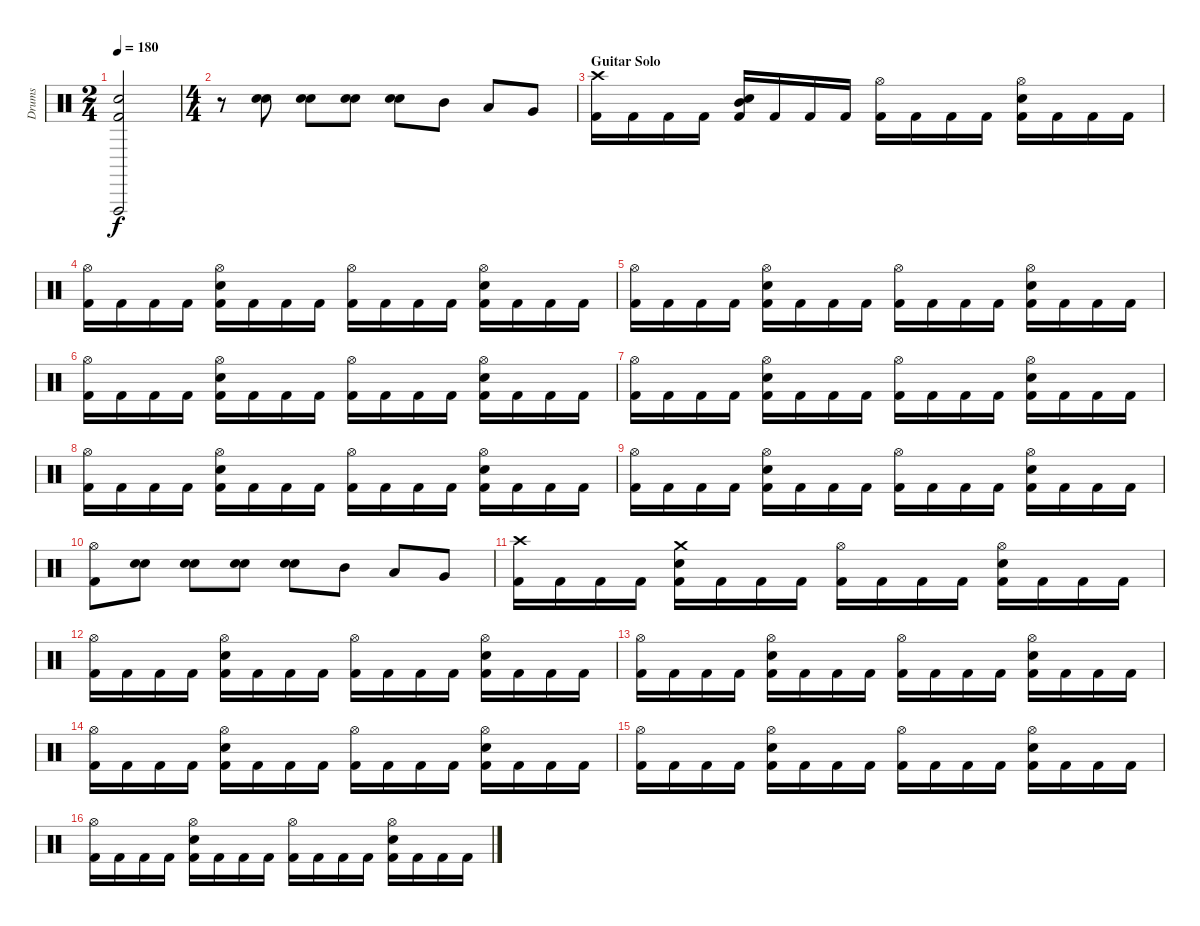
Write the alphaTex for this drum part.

\track ("Drums" "Drums") {instrument percussion}
\staff {score}
\articulation defaults
\ts (2 4)
\tempo 180
\clef neutral
\ks c
("Vibraslap (hit)"{t} "Snare (hit) 2"{t} "Kick (hit) 2"{t}).2{dy f} |
\ts (4 4)
r.8 ("Snare (hit) 2" "Snare (hit) 2").8 ("Snare (hit) 2" "Snare (hit) 2").8 ("Snare (hit) 2" "Snare (hit) 2").8 ("Snare (hit) 2" "Snare (hit) 2").8 "Mid Tom (hit)".8 "Low Tom (hit)".8 "Very Low Tom (hit)".8 |
\section ("" "Guitar Solo")
("Crash high (hit)" "Kick (hit) 2").16 "Kick (hit) 2".16 "Kick (hit) 2".16 "Kick (hit) 2".16 ("Mid Tom (hit)" "Snare (hit) 2" "Kick (hit) 2").16 "Kick (hit) 2".16 "Kick (hit) 2".16 "Kick (hit) 2".16 ("Hi-Hat (open)" "Kick (hit) 2").16 "Kick (hit) 2".16 "Kick (hit) 2".16 "Kick (hit) 2".16 ("Hi-Hat (open)" "Snare (hit) 2" "Kick (hit) 2").16 "Kick (hit) 2".16 "Kick (hit) 2".16 "Kick (hit) 2".16 |
("Hi-Hat (open)" "Kick (hit) 2").16 "Kick (hit) 2".16 "Kick (hit) 2".16 "Kick (hit) 2".16 ("Hi-Hat (open)" "Snare (hit) 2" "Kick (hit) 2").16 "Kick (hit) 2".16 "Kick (hit) 2".16 "Kick (hit) 2".16 ("Hi-Hat (open)" "Kick (hit) 2").16 "Kick (hit) 2".16 "Kick (hit) 2".16 "Kick (hit) 2".16 ("Hi-Hat (open)" "Snare (hit) 2" "Kick (hit) 2").16 "Kick (hit) 2".16 "Kick (hit) 2".16 "Kick (hit) 2".16 |
("Hi-Hat (open)" "Kick (hit) 2").16 "Kick (hit) 2".16 "Kick (hit) 2".16 "Kick (hit) 2".16 ("Hi-Hat (open)" "Snare (hit) 2" "Kick (hit) 2").16 "Kick (hit) 2".16 "Kick (hit) 2".16 "Kick (hit) 2".16 ("Hi-Hat (open)" "Kick (hit) 2").16 "Kick (hit) 2".16 "Kick (hit) 2".16 "Kick (hit) 2".16 ("Hi-Hat (open)" "Snare (hit) 2" "Kick (hit) 2").16 "Kick (hit) 2".16 "Kick (hit) 2".16 "Kick (hit) 2".16 |
("Hi-Hat (open)" "Kick (hit) 2").16 "Kick (hit) 2".16 "Kick (hit) 2".16 "Kick (hit) 2".16 ("Hi-Hat (open)" "Snare (hit) 2" "Kick (hit) 2").16 "Kick (hit) 2".16 "Kick (hit) 2".16 "Kick (hit) 2".16 ("Hi-Hat (open)" "Kick (hit) 2").16 "Kick (hit) 2".16 "Kick (hit) 2".16 "Kick (hit) 2".16 ("Hi-Hat (open)" "Snare (hit) 2" "Kick (hit) 2").16 "Kick (hit) 2".16 "Kick (hit) 2".16 "Kick (hit) 2".16 |
("Hi-Hat (open)" "Kick (hit) 2").16 "Kick (hit) 2".16 "Kick (hit) 2".16 "Kick (hit) 2".16 ("Hi-Hat (open)" "Snare (hit) 2" "Kick (hit) 2").16 "Kick (hit) 2".16 "Kick (hit) 2".16 "Kick (hit) 2".16 ("Hi-Hat (open)" "Kick (hit) 2").16 "Kick (hit) 2".16 "Kick (hit) 2".16 "Kick (hit) 2".16 ("Hi-Hat (open)" "Snare (hit) 2" "Kick (hit) 2").16 "Kick (hit) 2".16 "Kick (hit) 2".16 "Kick (hit) 2".16 |
("Hi-Hat (open)" "Kick (hit) 2").16 "Kick (hit) 2".16 "Kick (hit) 2".16 "Kick (hit) 2".16 ("Hi-Hat (open)" "Snare (hit) 2" "Kick (hit) 2").16 "Kick (hit) 2".16 "Kick (hit) 2".16 "Kick (hit) 2".16 ("Hi-Hat (open)" "Kick (hit) 2").16 "Kick (hit) 2".16 "Kick (hit) 2".16 "Kick (hit) 2".16 ("Hi-Hat (open)" "Snare (hit) 2" "Kick (hit) 2").16 "Kick (hit) 2".16 "Kick (hit) 2".16 "Kick (hit) 2".16 |
("Hi-Hat (open)" "Kick (hit) 2").16 "Kick (hit) 2".16 "Kick (hit) 2".16 "Kick (hit) 2".16 ("Hi-Hat (open)" "Snare (hit) 2" "Kick (hit) 2").16 "Kick (hit) 2".16 "Kick (hit) 2".16 "Kick (hit) 2".16 ("Hi-Hat (open)" "Kick (hit) 2").16 "Kick (hit) 2".16 "Kick (hit) 2".16 "Kick (hit) 2".16 ("Hi-Hat (open)" "Snare (hit) 2" "Kick (hit) 2").16 "Kick (hit) 2".16 "Kick (hit) 2".16 "Kick (hit) 2".16 |
("Hi-Hat (open)" "Kick (hit) 2").8 ("Snare (hit) 2" "Snare (hit) 2").8 ("Snare (hit) 2" "Snare (hit) 2").8 ("Snare (hit) 2" "Snare (hit) 2").8 ("Snare (hit) 2" "Snare (hit) 2").8 "Mid Tom (hit)".8 "Low Tom (hit)".8 "Very Low Tom (hit)".8 |
("Crash high (hit)" "Kick (hit) 2").16 "Kick (hit) 2".16 "Kick (hit) 2".16 "Kick (hit) 2".16 ("Crash medium (hit)" "Snare (hit) 2" "Kick (hit) 2").16 "Kick (hit) 2".16 "Kick (hit) 2".16 "Kick (hit) 2".16 ("Hi-Hat (open)" "Kick (hit) 2").16 "Kick (hit) 2".16 "Kick (hit) 2".16 "Kick (hit) 2".16 ("Hi-Hat (open)" "Snare (hit) 2" "Kick (hit) 2").16 "Kick (hit) 2".16 "Kick (hit) 2".16 "Kick (hit) 2".16 |
("Hi-Hat (open)" "Kick (hit) 2").16 "Kick (hit) 2".16 "Kick (hit) 2".16 "Kick (hit) 2".16 ("Hi-Hat (open)" "Snare (hit) 2" "Kick (hit) 2").16 "Kick (hit) 2".16 "Kick (hit) 2".16 "Kick (hit) 2".16 ("Hi-Hat (open)" "Kick (hit) 2").16 "Kick (hit) 2".16 "Kick (hit) 2".16 "Kick (hit) 2".16 ("Hi-Hat (open)" "Snare (hit) 2" "Kick (hit) 2").16 "Kick (hit) 2".16 "Kick (hit) 2".16 "Kick (hit) 2".16 |
("Hi-Hat (open)" "Kick (hit) 2").16 "Kick (hit) 2".16 "Kick (hit) 2".16 "Kick (hit) 2".16 ("Hi-Hat (open)" "Snare (hit) 2" "Kick (hit) 2").16 "Kick (hit) 2".16 "Kick (hit) 2".16 "Kick (hit) 2".16 ("Hi-Hat (open)" "Kick (hit) 2").16 "Kick (hit) 2".16 "Kick (hit) 2".16 "Kick (hit) 2".16 ("Hi-Hat (open)" "Snare (hit) 2" "Kick (hit) 2").16 "Kick (hit) 2".16 "Kick (hit) 2".16 "Kick (hit) 2".16 |
("Hi-Hat (open)" "Kick (hit) 2").16 "Kick (hit) 2".16 "Kick (hit) 2".16 "Kick (hit) 2".16 ("Hi-Hat (open)" "Snare (hit) 2" "Kick (hit) 2").16 "Kick (hit) 2".16 "Kick (hit) 2".16 "Kick (hit) 2".16 ("Hi-Hat (open)" "Kick (hit) 2").16 "Kick (hit) 2".16 "Kick (hit) 2".16 "Kick (hit) 2".16 ("Hi-Hat (open)" "Snare (hit) 2" "Kick (hit) 2").16 "Kick (hit) 2".16 "Kick (hit) 2".16 "Kick (hit) 2".16 |
("Hi-Hat (open)" "Kick (hit) 2").16 "Kick (hit) 2".16 "Kick (hit) 2".16 "Kick (hit) 2".16 ("Hi-Hat (open)" "Snare (hit) 2" "Kick (hit) 2").16 "Kick (hit) 2".16 "Kick (hit) 2".16 "Kick (hit) 2".16 ("Hi-Hat (open)" "Kick (hit) 2").16 "Kick (hit) 2".16 "Kick (hit) 2".16 "Kick (hit) 2".16 ("Hi-Hat (open)" "Snare (hit) 2" "Kick (hit) 2").16 "Kick (hit) 2".16 "Kick (hit) 2".16 "Kick (hit) 2".16 |
("Hi-Hat (open)" "Kick (hit) 2").16 "Kick (hit) 2".16 "Kick (hit) 2".16 "Kick (hit) 2".16 ("Hi-Hat (open)" "Snare (hit) 2" "Kick (hit) 2").16 "Kick (hit) 2".16 "Kick (hit) 2".16 "Kick (hit) 2".16 ("Hi-Hat (open)" "Kick (hit) 2").16 "Kick (hit) 2".16 "Kick (hit) 2".16 "Kick (hit) 2".16 ("Hi-Hat (open)" "Snare (hit) 2" "Kick (hit) 2").16 "Kick (hit) 2".16 "Kick (hit) 2".16 "Kick (hit) 2".16
